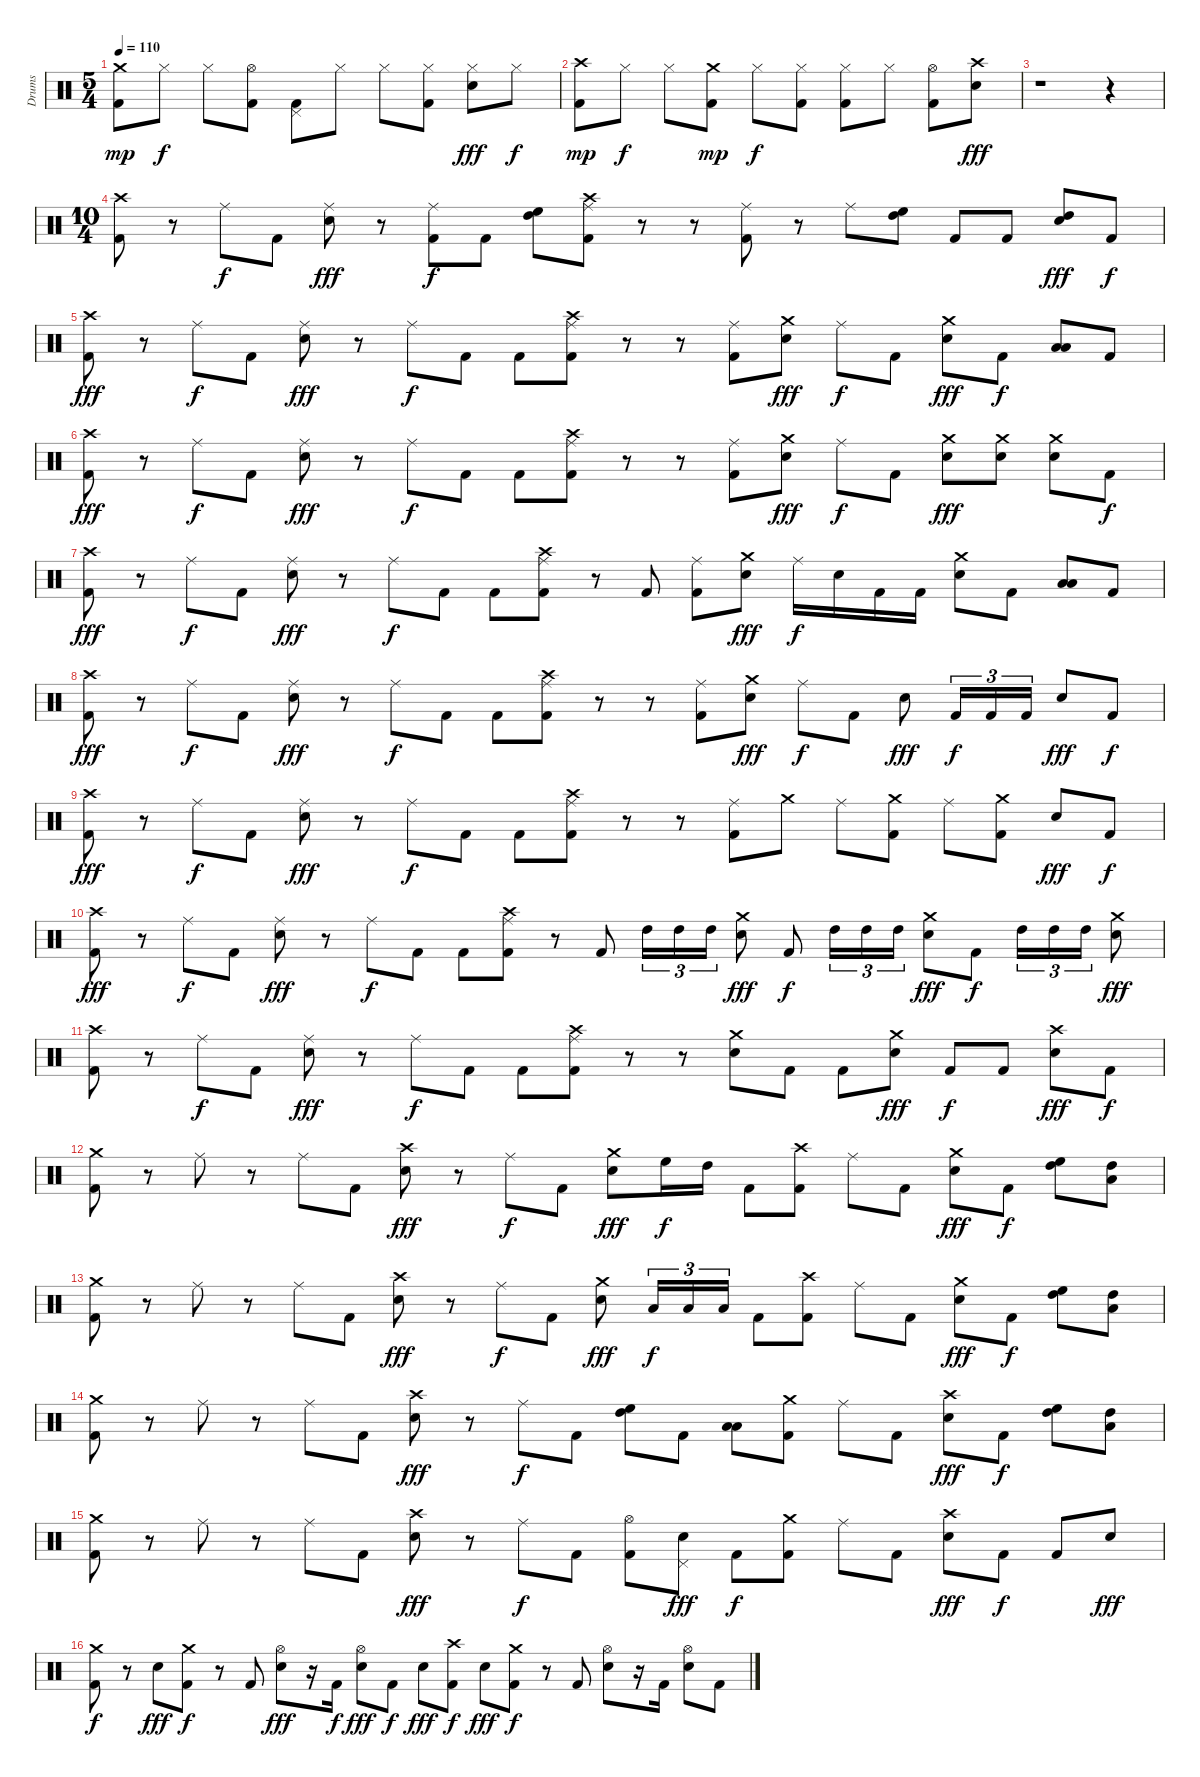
\track ("Drums" "Drums") {instrument percussion}
\staff {score}
\articulation defaults
\ts (5 4)
\tempo 110
\clef neutral
\ks c
("Crash medium (hit)" "Kick (hit) 2").8{dy mp} "Hi-Hat (closed)".8{dy f} "Hi-Hat (closed)".8 ("Hi-Hat (open)" "Kick (hit) 2").8 ("Pedal Hi-Hat (hit)" "Kick (hit) 2").8 "Hi-Hat (closed)".8 "Hi-Hat (closed)".8 ("Hi-Hat (closed)" "Kick (hit) 2").8 ("Hi-Hat (closed)" "Electric Snare (hit)").8{dy fff} "Hi-Hat (closed)".8{dy f} |
("Crash high (hit)" "Kick (hit) 2").8{dy mp} "Hi-Hat (closed)".8{dy f} "Hi-Hat (closed)".8 ("Crash medium (hit)" "Kick (hit) 2").8{dy mp} "Hi-Hat (closed)".8{dy f} ("Hi-Hat (closed)" "Kick (hit) 2").8 ("Hi-Hat (closed)" "Kick (hit) 2").8 "Hi-Hat (closed)".8 ("Hi-Hat (open)" "Kick (hit) 2").8 ("Crash high (hit)" "Electric Snare (hit)").8{dy fff} |
r.1 r.4 |
\ts (10 4)
("Crash high (hit)" "Kick (hit) 2").8 r.8 "Ride (middle)".8{dy f} "Kick (hit) 2".8 ("Ride (middle)" "Electric Snare (hit)").8{dy fff} r.8 ("Ride (middle)" "Kick (hit) 2").8{dy f} "Kick (hit) 2".8 ("High Tom (hit)" "High Floor Tom (hit)").8 ("Ride (middle)" "Crash high (hit)" "Kick (hit) 2").8 r.8 r.8 ("Ride (middle)" "Kick (hit) 2").8 r.8 "Ride (middle)".8 ("High Tom (hit)" "High Floor Tom (hit)").8 "Kick (hit) 2".8 "Kick (hit) 2".8 ("High Tom (hit)" "Electric Snare (hit)").8{dy fff} "Kick (hit) 2".8{dy f} |
("Crash high (hit)" "Kick (hit) 2").8{dy fff} r.8 "Ride (middle)".8{dy f} "Kick (hit) 2".8 ("Ride (middle)" "Electric Snare (hit)").8{dy fff} r.8 "Ride (middle)".8{dy f} "Kick (hit) 2".8 "Kick (hit) 2".8 ("Ride (middle)" "Crash high (hit)" "Kick (hit) 2").8 r.8 r.8 ("Ride (middle)" "Kick (hit) 2").8 ("Crash medium (hit)" "Electric Snare (hit)").8{dy fff} "Ride (middle)".8{dy f} "Kick (hit) 2".8 ("Crash medium (hit)" "Electric Snare (hit)").8{dy fff} "Kick (hit) 2".8{dy f} ("Low Floor Tom (hit)" "Low Tom (hit)").8 "Kick (hit) 2".8 |
("Crash high (hit)" "Kick (hit) 2").8{dy fff} r.8 "Ride (middle)".8{dy f} "Kick (hit) 2".8 ("Ride (middle)" "Electric Snare (hit)").8{dy fff} r.8 "Ride (middle)".8{dy f} "Kick (hit) 2".8 "Kick (hit) 2".8 ("Ride (middle)" "Crash high (hit)" "Kick (hit) 2").8 r.8 r.8 ("Ride (middle)" "Kick (hit) 2").8 ("Crash medium (hit)" "Electric Snare (hit)").8{dy fff} "Ride (middle)".8{dy f} "Kick (hit) 2".8 ("Crash medium (hit)" "Electric Snare (hit)").8{dy fff} ("Crash medium (hit)" "Electric Snare (hit)").8 ("Crash medium (hit)" "Electric Snare (hit)").8 "Kick (hit) 2".8{dy f} |
("Crash high (hit)" "Kick (hit) 2").8{dy fff} r.8 "Ride (middle)".8{dy f} "Kick (hit) 2".8 ("Ride (middle)" "Electric Snare (hit)").8{dy fff} r.8 "Ride (middle)".8{dy f} "Kick (hit) 2".8 "Kick (hit) 2".8 ("Ride (middle)" "Crash high (hit)" "Kick (hit) 2").8 r.8 "Kick (hit) 2".8 ("Ride (middle)" "Kick (hit) 2").8 ("Crash medium (hit)" "Electric Snare (hit)").8{dy fff} "Ride (middle)".16{dy f} "Electric Snare (hit)".16 "Kick (hit) 2".16 "Kick (hit) 2".16 ("Crash medium (hit)" "Electric Snare (hit)").8 "Kick (hit) 2".8 ("Low Floor Tom (hit)" "Low Tom (hit)").8 "Kick (hit) 2".8 |
("Crash high (hit)" "Kick (hit) 2").8{dy fff} r.8 "Ride (middle)".8{dy f} "Kick (hit) 2".8 ("Ride (middle)" "Electric Snare (hit)").8{dy fff} r.8 "Ride (middle)".8{dy f} "Kick (hit) 2".8 "Kick (hit) 2".8 ("Ride (middle)" "Crash high (hit)" "Kick (hit) 2").8 r.8 r.8 ("Ride (middle)" "Kick (hit) 2").8 ("Crash medium (hit)" "Electric Snare (hit)").8{dy fff} "Ride (middle)".8{dy f} "Kick (hit) 2".8 "Electric Snare (hit)".8{dy fff} "Kick (hit) 2".16{tu (3 2) dy f} "Kick (hit) 2".16{tu (3 2)} "Kick (hit) 2".16{tu (3 2)} "Electric Snare (hit)".8{dy fff} "Kick (hit) 2".8{dy f} |
("Crash high (hit)" "Kick (hit) 2").8{dy fff} r.8 "Ride (middle)".8{dy f} "Kick (hit) 2".8 ("Ride (middle)" "Electric Snare (hit)").8{dy fff} r.8 "Ride (middle)".8{dy f} "Kick (hit) 2".8 "Kick (hit) 2".8 ("Ride (middle)" "Crash high (hit)" "Kick (hit) 2").8 r.8 r.8 ("Ride (middle)" "Kick (hit) 2").8 "Crash medium (hit)".8 "Ride (middle)".8 ("Crash medium (hit)" "Kick (hit) 2").8 "Ride (middle)".8 ("Crash medium (hit)" "Kick (hit) 2").8 "Electric Snare (hit)".8{dy fff} "Kick (hit) 2".8{dy f} |
("Crash high (hit)" "Kick (hit) 2").8{dy fff} r.8 "Ride (middle)".8{dy f} "Kick (hit) 2".8 ("Ride (middle)" "Electric Snare (hit)").8{dy fff} r.8 "Ride (middle)".8{dy f} "Kick (hit) 2".8 "Kick (hit) 2".8 ("Ride (middle)" "Crash high (hit)" "Kick (hit) 2").8 r.8 "Kick (hit) 2".8 "High Tom (hit)".16{tu (3 2)} "High Tom (hit)".16{tu (3 2)} "High Tom (hit)".16{tu (3 2)} ("Crash medium (hit)" "Electric Snare (hit)").8{dy fff} "Kick (hit) 2".8{dy f} "High Tom (hit)".16{tu (3 2)} "High Tom (hit)".16{tu (3 2)} "High Tom (hit)".16{tu (3 2)} ("Crash medium (hit)" "Electric Snare (hit)").8{dy fff} "Kick (hit) 2".8{dy f} "High Tom (hit)".16{tu (3 2)} "High Tom (hit)".16{tu (3 2)} "High Tom (hit)".16{tu (3 2)} ("Crash medium (hit)" "Electric Snare (hit)").8{dy fff} |
("Crash high (hit)" "Kick (hit) 2").8 r.8 "Ride (middle)".8{dy f} "Kick (hit) 2".8 ("Ride (middle)" "Electric Snare (hit)").8{dy fff} r.8 "Ride (middle)".8{dy f} "Kick (hit) 2".8 "Kick (hit) 2".8 ("Ride (middle)" "Crash high (hit)" "Kick (hit) 2").8 r.8 r.8 ("Crash medium (hit)" "Electric Snare (hit)").8 "Kick (hit) 2".8 "Kick (hit) 2".8 ("Crash medium (hit)" "Electric Snare (hit)").8{dy fff} "Kick (hit) 2".8{dy f} "Kick (hit) 2".8 ("Crash high (hit)" "Electric Snare (hit)").8{dy fff} "Kick (hit) 2".8{dy f} |
("Crash medium (hit)" "Kick (hit) 2").8 r.8 "Ride (middle)".8 r.8 "Ride (middle)".8 "Kick (hit) 2".8 ("Crash high (hit)" "Electric Snare (hit)").8{dy fff} r.8 "Ride (middle)".8{dy f} "Kick (hit) 2".8 ("Crash medium (hit)" "Electric Snare (hit)").8{dy fff} "High Floor Tom (hit)".16{dy f} "High Tom (hit)".16 "Kick (hit) 2".8 ("Crash high (hit)" "Kick (hit) 2").8 "Ride (middle)".8 "Kick (hit) 2".8 ("Crash medium (hit)" "Electric Snare (hit)").8{dy fff} "Kick (hit) 2".8{dy f} ("High Tom (hit)" "High Floor Tom (hit)").8 ("Low Tom (hit)" "High Tom (hit)").8 |
("Crash medium (hit)" "Kick (hit) 2").8 r.8 "Ride (middle)".8 r.8 "Ride (middle)".8 "Kick (hit) 2".8 ("Crash high (hit)" "Electric Snare (hit)").8{dy fff} r.8 "Ride (middle)".8{dy f} "Kick (hit) 2".8 ("Crash medium (hit)" "Electric Snare (hit)").8{dy fff} "Low Tom (hit)".16{tu (3 2) dy f} "Low Tom (hit)".16{tu (3 2)} "Low Tom (hit)".16{tu (3 2)} "Kick (hit) 2".8 ("Crash high (hit)" "Kick (hit) 2").8 "Ride (middle)".8 "Kick (hit) 2".8 ("Crash medium (hit)" "Electric Snare (hit)").8{dy fff} "Kick (hit) 2".8{dy f} ("High Tom (hit)" "High Floor Tom (hit)").8 ("Low Tom (hit)" "High Tom (hit)").8 |
("Crash medium (hit)" "Kick (hit) 2").8 r.8 "Ride (middle)".8 r.8 "Ride (middle)".8 "Kick (hit) 2".8 ("Crash high (hit)" "Electric Snare (hit)").8{dy fff} r.8 "Ride (middle)".8{dy f} "Kick (hit) 2".8 ("High Tom (hit)" "High Floor Tom (hit)").8 "Kick (hit) 2".8 ("Low Floor Tom (hit)" "Low Tom (hit)").8 ("Crash medium (hit)" "Kick (hit) 2").8 "Ride (middle)".8 "Kick (hit) 2".8 ("Crash high (hit)" "Electric Snare (hit)").8{dy fff} "Kick (hit) 2".8{dy f} ("High Tom (hit)" "High Floor Tom (hit)").8 ("Low Tom (hit)" "High Tom (hit)").8 |
("Crash medium (hit)" "Kick (hit) 2").8 r.8 "Ride (middle)".8 r.8 "Ride (middle)".8 "Kick (hit) 2".8 ("Crash high (hit)" "Electric Snare (hit)").8{dy fff} r.8 "Ride (middle)".8{dy f} "Kick (hit) 2".8 ("Hi-Hat (open)" "Kick (hit) 2").8 ("Pedal Hi-Hat (hit)" "Electric Snare (hit)").8{dy fff} "Kick (hit) 2".8{dy f} ("Crash medium (hit)" "Kick (hit) 2").8 "Ride (middle)".8 "Kick (hit) 2".8 ("Crash high (hit)" "Electric Snare (hit)").8{dy fff} "Kick (hit) 2".8{dy f} "Kick (hit) 2".8 "Electric Snare (hit)".8{dy fff} |
("Crash medium (hit)" "Kick (hit) 2").8{dy f} r.8 "Electric Snare (hit)".8{dy fff} ("Crash medium (hit)" "Kick (hit) 2").8{dy f} r.8 "Kick (hit) 2".8 ("Hi-Hat (open)" "Electric Snare (hit)").8{dy fff} r.16 "Kick (hit) 2".16{dy f} ("Hi-Hat (open)" "Electric Snare (hit)").8{dy fff} "Kick (hit) 2".8{dy f} "Electric Snare (hit)".8{dy fff} ("Crash high (hit)" "Kick (hit) 2").8{dy f} "Electric Snare (hit)".8{dy fff} ("Crash medium (hit)" "Kick (hit) 2").8{dy f} r.8 "Kick (hit) 2".8 ("Hi-Hat (open)" "Electric Snare (hit)").8 r.16 "Kick (hit) 2".16 ("Hi-Hat (open)" "Electric Snare (hit)").8 "Kick (hit) 2".8
